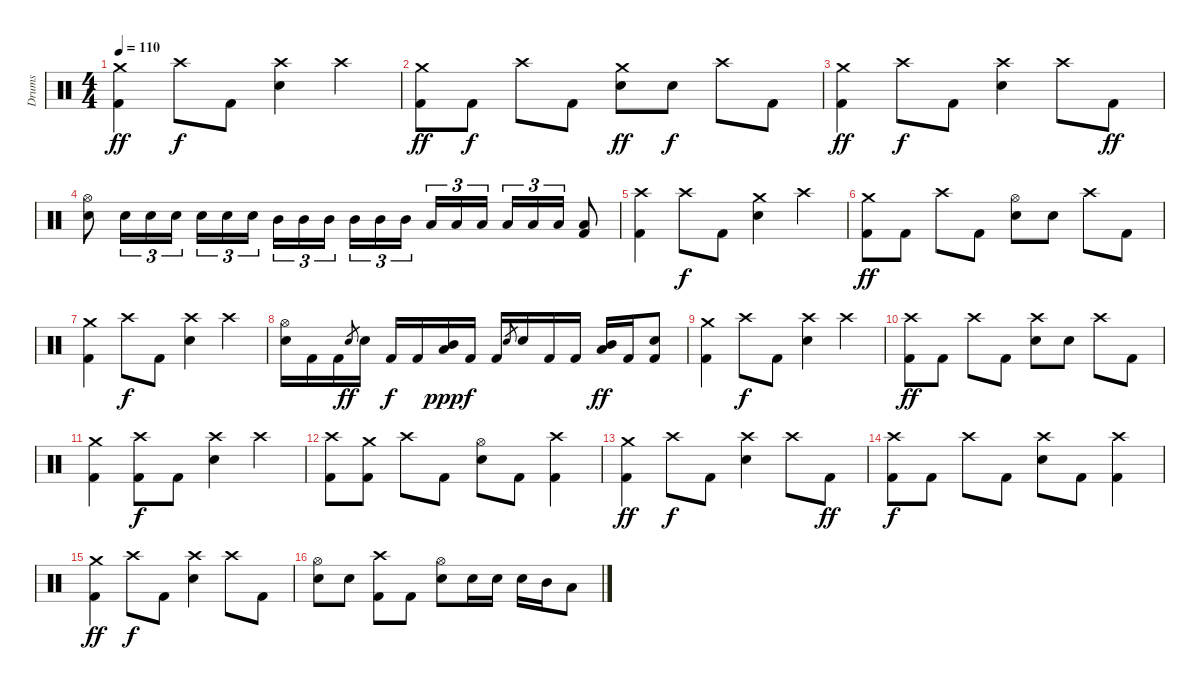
\track ("Drums" "Drums") {instrument percussion}
\staff {score}
\articulation defaults
\ts (4 4)
\tempo 110
\clef neutral
\ks c
("Crash medium (hit)" "Kick (hit) 2").4{dy ff} "Crash high (hit)".8{dy f} "Kick (hit) 2".8 ("Crash high (hit)" "Electric Snare (hit)").4 "Crash high (hit)".4 |
("Crash medium (hit)" "Kick (hit) 2").8{dy ff} "Kick (hit) 2".8{dy f} "Crash high (hit)".8 "Kick (hit) 2".8 ("Crash medium (hit)" "Electric Snare (hit)").8{dy ff} "Electric Snare (hit)".8{dy f} "Crash high (hit)".8 "Kick (hit) 2".8 |
("Crash medium (hit)" "Kick (hit) 2").4{dy ff} "Crash high (hit)".8{dy f} "Kick (hit) 2".8 ("Crash high (hit)" "Electric Snare (hit)").4 "Crash high (hit)".8 "Kick (hit) 2".8{dy ff} |
("Hi-Hat (open)" "Electric Snare (hit)").8 "Electric Snare (hit)".16{tu (3 2)} "Electric Snare (hit)".16{tu (3 2)} "Electric Snare (hit)".16{tu (3 2)} "Electric Snare (hit)".16{tu (3 2)} "Electric Snare (hit)".16{tu (3 2)} "Electric Snare (hit)".16{tu (3 2) beam splitsecondary} "Mid Tom (hit)".16{tu (3 2)} "Mid Tom (hit)".16{tu (3 2)} "Mid Tom (hit)".16{tu (3 2)} "Mid Tom (hit)".16{tu (3 2)} "Mid Tom (hit)".16{tu (3 2)} "Mid Tom (hit)".16{tu (3 2) beam splitsecondary} "Low Tom (hit)".16{tu (3 2)} "Low Tom (hit)".16{tu (3 2)} "Low Tom (hit)".16{tu (3 2)} "Low Tom (hit)".16{tu (3 2)} "Low Tom (hit)".16{tu (3 2)} "Low Tom (hit)".16{tu (3 2)} ("Low Tom (hit)" "Kick (hit) 2").8 |
("Crash high (hit)" "Kick (hit) 2").4 "Crash high (hit)".8{dy f} "Kick (hit) 2".8 ("Crash medium (hit)" "Electric Snare (hit)").4 "Crash high (hit)".4 |
("Crash medium (hit)" "Kick (hit) 2").8{dy ff} "Kick (hit) 2".8 "Crash high (hit)".8 "Kick (hit) 2".8 ("Hi-Hat (open)" "Electric Snare (hit)").8 "Electric Snare (hit)".8 "Crash high (hit)".8 "Kick (hit) 2".8 |
("Crash medium (hit)" "Kick (hit) 2").4 "Crash high (hit)".8{dy f} "Kick (hit) 2".8 ("Crash high (hit)" "Electric Snare (hit)").4 "Crash high (hit)".4 |
("Hi-Hat (open)" "Electric Snare (hit)").16 "Kick (hit) 2".16 "Kick (hit) 2".16 "Electric Snare (hit)".8{gr dy ff} "Electric Snare (hit)".16 "Kick (hit) 2".16{dy f} "Kick (hit) 2".16 ("Mid Tom (hit)" "Low Tom (hit)").16{dy ppp} "Kick (hit) 2".16{dy f} "Kick (hit) 2".16 "Electric Snare (hit)".8{gr} "Electric Snare (hit)".16 "Kick (hit) 2".16 "Kick (hit) 2".16 ("Mid Tom (hit)" "Low Tom (hit)").16{dy ff} "Kick (hit) 2".16 ("Electric Snare (hit)" "Kick (hit) 2").8 |
("Crash medium (hit)" "Kick (hit) 2").4 "Crash high (hit)".8{dy f} "Kick (hit) 2".8 ("Crash high (hit)" "Electric Snare (hit)").4 "Crash high (hit)".4 |
("Crash high (hit)" "Kick (hit) 2").8{dy ff} "Kick (hit) 2".8 "Crash high (hit)".8 "Kick (hit) 2".8 ("Crash high (hit)" "Electric Snare (hit)").8 "Electric Snare (hit)".8 "Crash high (hit)".8 "Kick (hit) 2".8 |
("Crash medium (hit)" "Kick (hit) 2").4 ("Crash high (hit)" "Kick (hit) 2").8{dy f} "Kick (hit) 2".8 ("Crash high (hit)" "Electric Snare (hit)").4 "Crash high (hit)".4 |
("Crash high (hit)" "Kick (hit) 2").8 ("Crash medium (hit)" "Kick (hit) 2").8 "Crash high (hit)".8 "Kick (hit) 2".8 ("Hi-Hat (open)" "Electric Snare (hit)").8 "Kick (hit) 2".8 ("Crash high (hit)" "Kick (hit) 2").4 |
("Crash medium (hit)" "Kick (hit) 2").4{dy ff} "Crash high (hit)".8{dy f} "Kick (hit) 2".8 ("Crash high (hit)" "Electric Snare (hit)").4 "Crash high (hit)".8 "Kick (hit) 2".8{dy ff} |
("Crash high (hit)" "Kick (hit) 2").8{dy f} "Kick (hit) 2".8 "Crash high (hit)".8 "Kick (hit) 2".8 ("Crash high (hit)" "Electric Snare (hit)").8 "Kick (hit) 2".8 ("Crash high (hit)" "Kick (hit) 2").4 |
("Crash medium (hit)" "Kick (hit) 2").4{dy ff} "Crash high (hit)".8{dy f} "Kick (hit) 2".8 ("Crash high (hit)" "Electric Snare (hit)").4 "Crash high (hit)".8 "Kick (hit) 2".8 |
("Hi-Hat (open)" "Electric Snare (hit)").8 "Electric Snare (hit)".8 ("Crash high (hit)" "Kick (hit) 2").8 "Kick (hit) 2".8 ("Hi-Hat (open)" "Electric Snare (hit)").8 "Electric Snare (hit)".16 "Electric Snare (hit)".16 "Electric Snare (hit)".16 "Mid Tom (hit)".16 "Low Tom (hit)".8
